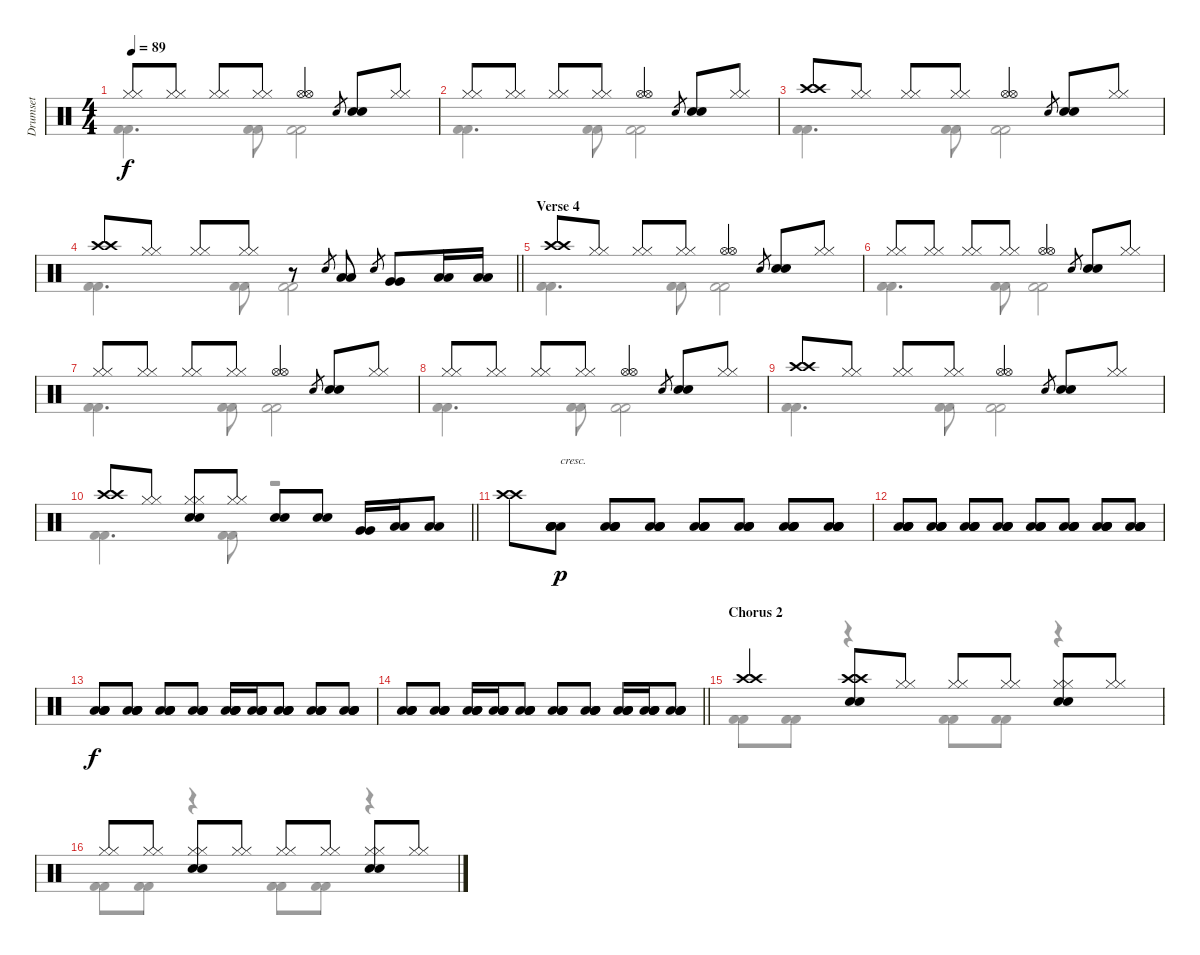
\track ("Drumset" "Drumset") {instrument percussion}
\staff {score}
\articulation defaults
\voice
\ts (4 4)
\tempo 89
\clef neutral
\ks c
("Hi-Hat (closed)" "Hi-Hat (closed)").8{dy f} ("Hi-Hat (closed)" "Hi-Hat (closed)").8 ("Hi-Hat (closed)" "Hi-Hat (closed)").8 ("Hi-Hat (closed)" "Hi-Hat (closed)").8 ("Hi-Hat (open)" "Hi-Hat (open)").4 "Snare (hit)".8{gr} ("Electric Snare (hit)" "Electric Snare (hit)").8 ("Hi-Hat (closed)" "Hi-Hat (closed)").8 |
("Hi-Hat (closed)" "Hi-Hat (closed)").8 ("Hi-Hat (closed)" "Hi-Hat (closed)").8 ("Hi-Hat (closed)" "Hi-Hat (closed)").8 ("Hi-Hat (closed)" "Hi-Hat (closed)").8 ("Hi-Hat (open)" "Hi-Hat (open)").4 "Snare (hit)".8{gr} ("Electric Snare (hit)" "Electric Snare (hit)").8 ("Hi-Hat (closed)" "Hi-Hat (closed)").8 |
("Crash high (hit)" "Crash high (hit)").8 ("Hi-Hat (closed)" "Hi-Hat (closed)").8 ("Hi-Hat (closed)" "Hi-Hat (closed)").8 ("Hi-Hat (closed)" "Hi-Hat (closed)").8 ("Hi-Hat (open)" "Hi-Hat (open)").4 "Snare (hit)".8{gr} ("Electric Snare (hit)" "Electric Snare (hit)").8 ("Hi-Hat (closed)" "Hi-Hat (closed)").8 |
\barLineRight lightlight
("Crash high (hit)" "Crash high (hit)").8 ("Hi-Hat (closed)" "Hi-Hat (closed)").8 ("Hi-Hat (closed)" "Hi-Hat (closed)").8 ("Hi-Hat (closed)" "Hi-Hat (closed)").8 r.8 "Snare (hit)".8{gr} ("Low Tom (hit)" "Low Tom (hit)").8 "Snare (hit)".8{gr} ("Very Low Tom (hit)" "Very Low Tom (hit)").8 ("Low Floor Tom (hit)" "Low Floor Tom (hit)").16 ("Low Floor Tom (hit)" "Low Floor Tom (hit)").16 |
\section ("" "Verse 4")
("Crash high (hit)" "Crash high (hit)").8 ("Hi-Hat (closed)" "Hi-Hat (closed)").8 ("Hi-Hat (closed)" "Hi-Hat (closed)").8 ("Hi-Hat (closed)" "Hi-Hat (closed)").8 ("Hi-Hat (open)" "Hi-Hat (open)").4 "Snare (hit)".8{gr} ("Electric Snare (hit)" "Electric Snare (hit)").8 ("Hi-Hat (closed)" "Hi-Hat (closed)").8 |
("Hi-Hat (closed)" "Hi-Hat (closed)").8 ("Hi-Hat (closed)" "Hi-Hat (closed)").8 ("Hi-Hat (closed)" "Hi-Hat (closed)").8 ("Hi-Hat (closed)" "Hi-Hat (closed)").8 ("Hi-Hat (open)" "Hi-Hat (open)").4 "Snare (hit)".8{gr} ("Electric Snare (hit)" "Electric Snare (hit)").8 ("Hi-Hat (closed)" "Hi-Hat (closed)").8 |
("Hi-Hat (closed)" "Hi-Hat (closed)").8 ("Hi-Hat (closed)" "Hi-Hat (closed)").8 ("Hi-Hat (closed)" "Hi-Hat (closed)").8 ("Hi-Hat (closed)" "Hi-Hat (closed)").8 ("Hi-Hat (open)" "Hi-Hat (open)").4 "Snare (hit)".8{gr} ("Electric Snare (hit)" "Electric Snare (hit)").8 ("Hi-Hat (closed)" "Hi-Hat (closed)").8 |
("Hi-Hat (closed)" "Hi-Hat (closed)").8 ("Hi-Hat (closed)" "Hi-Hat (closed)").8 ("Hi-Hat (closed)" "Hi-Hat (closed)").8 ("Hi-Hat (closed)" "Hi-Hat (closed)").8 ("Hi-Hat (open)" "Hi-Hat (open)").4 "Snare (hit)".8{gr} ("Electric Snare (hit)" "Electric Snare (hit)").8 ("Hi-Hat (closed)" "Hi-Hat (closed)").8 |
("Crash high (hit)" "Crash high (hit)").8 ("Hi-Hat (closed)" "Hi-Hat (closed)").8 ("Hi-Hat (closed)" "Hi-Hat (closed)").8 ("Hi-Hat (closed)" "Hi-Hat (closed)").8 ("Hi-Hat (open)" "Hi-Hat (open)").4 "Snare (hit)".8{gr} ("Electric Snare (hit)" "Electric Snare (hit)").8 ("Hi-Hat (closed)" "Hi-Hat (closed)").8 |
\barLineRight lightlight
("Crash high (hit)" "Crash high (hit)").8 ("Hi-Hat (closed)" "Hi-Hat (closed)").8 ("Electric Snare (hit)" "Electric Snare (hit)" "Hi-Hat (closed)" "Hi-Hat (closed)").8 ("Hi-Hat (closed)" "Hi-Hat (closed)").8 ("Electric Snare (hit)" "Electric Snare (hit)").8 ("Electric Snare (hit)" "Electric Snare (hit)").8 ("Very Low Tom (hit)" "Very Low Tom (hit)").16 ("Low Tom (hit)" "Low Tom (hit)").16 ("Low Floor Tom (hit)" "Low Floor Tom (hit)").8 |
("Crash high (hit)" "Crash high (hit)").8 ("Low Floor Tom (hit)" "Low Floor Tom (hit)" "Low Tom (hit)" "Low Tom (hit)").8{txt "cresc." dy p} ("Low Floor Tom (hit)" "Low Floor Tom (hit)" "Low Tom (hit)" "Low Tom (hit)").8 ("Low Floor Tom (hit)" "Low Floor Tom (hit)" "Low Tom (hit)" "Low Tom (hit)").8 ("Low Floor Tom (hit)" "Low Floor Tom (hit)" "Low Tom (hit)" "Low Tom (hit)").8 ("Low Floor Tom (hit)" "Low Floor Tom (hit)" "Low Tom (hit)" "Low Tom (hit)").8 ("Low Floor Tom (hit)" "Low Floor Tom (hit)" "Low Tom (hit)" "Low Tom (hit)").8 ("Low Floor Tom (hit)" "Low Floor Tom (hit)" "Low Tom (hit)" "Low Tom (hit)").8 |
("Low Floor Tom (hit)" "Low Floor Tom (hit)" "Low Tom (hit)" "Low Tom (hit)").8 ("Low Floor Tom (hit)" "Low Floor Tom (hit)" "Low Tom (hit)" "Low Tom (hit)").8 ("Low Floor Tom (hit)" "Low Floor Tom (hit)" "Low Tom (hit)" "Low Tom (hit)").8 ("Low Floor Tom (hit)" "Low Floor Tom (hit)" "Low Tom (hit)" "Low Tom (hit)").8 ("Low Floor Tom (hit)" "Low Floor Tom (hit)" "Low Tom (hit)" "Low Tom (hit)").8 ("Low Floor Tom (hit)" "Low Floor Tom (hit)" "Low Tom (hit)" "Low Tom (hit)").8 ("Low Floor Tom (hit)" "Low Floor Tom (hit)" "Low Tom (hit)" "Low Tom (hit)").8 ("Low Floor Tom (hit)" "Low Floor Tom (hit)" "Low Tom (hit)" "Low Tom (hit)").8 |
("Low Floor Tom (hit)" "Low Floor Tom (hit)" "Low Tom (hit)" "Low Tom (hit)").8{dy f} ("Low Floor Tom (hit)" "Low Floor Tom (hit)" "Low Tom (hit)" "Low Tom (hit)").8 ("Low Floor Tom (hit)" "Low Floor Tom (hit)" "Low Tom (hit)" "Low Tom (hit)").8 ("Low Floor Tom (hit)" "Low Floor Tom (hit)" "Low Tom (hit)" "Low Tom (hit)").8 ("Low Floor Tom (hit)" "Low Floor Tom (hit)" "Low Tom (hit)" "Low Tom (hit)").16 ("Low Floor Tom (hit)" "Low Floor Tom (hit)" "Low Tom (hit)" "Low Tom (hit)").16 ("Low Floor Tom (hit)" "Low Floor Tom (hit)" "Low Tom (hit)" "Low Tom (hit)").8 ("Low Floor Tom (hit)" "Low Floor Tom (hit)" "Low Tom (hit)" "Low Tom (hit)").8 ("Low Floor Tom (hit)" "Low Floor Tom (hit)" "Low Tom (hit)" "Low Tom (hit)").8 |
\barLineRight lightlight
("Low Floor Tom (hit)" "Low Floor Tom (hit)" "Low Tom (hit)" "Low Tom (hit)").8 ("Low Floor Tom (hit)" "Low Floor Tom (hit)" "Low Tom (hit)" "Low Tom (hit)").8 ("Low Floor Tom (hit)" "Low Floor Tom (hit)" "Low Tom (hit)" "Low Tom (hit)").16 ("Low Floor Tom (hit)" "Low Floor Tom (hit)" "Low Tom (hit)" "Low Tom (hit)").16 ("Low Floor Tom (hit)" "Low Floor Tom (hit)" "Low Tom (hit)" "Low Tom (hit)").8 ("Low Floor Tom (hit)" "Low Floor Tom (hit)" "Low Tom (hit)" "Low Tom (hit)").8 ("Low Floor Tom (hit)" "Low Floor Tom (hit)" "Low Tom (hit)" "Low Tom (hit)").8 ("Low Floor Tom (hit)" "Low Floor Tom (hit)" "Low Tom (hit)" "Low Tom (hit)").16 ("Low Floor Tom (hit)" "Low Floor Tom (hit)" "Low Tom (hit)" "Low Tom (hit)").16 ("Low Floor Tom (hit)" "Low Floor Tom (hit)" "Low Tom (hit)" "Low Tom (hit)").8 |
\section ("" "Chorus 2")
("Crash high (hit)" "Crash high (hit)").4 ("Electric Snare (hit)" "Electric Snare (hit)" "Crash high (hit)" "Crash high (hit)").8 ("Hi-Hat (closed)" "Hi-Hat (closed)").8 ("Hi-Hat (closed)" "Hi-Hat (closed)").8 ("Hi-Hat (closed)" "Hi-Hat (closed)").8 ("Electric Snare (hit)" "Electric Snare (hit)" "Hi-Hat (closed)" "Hi-Hat (closed)").8 ("Hi-Hat (closed)" "Hi-Hat (closed)").8 |
("Hi-Hat (closed)" "Hi-Hat (closed)").8 ("Hi-Hat (closed)" "Hi-Hat (closed)").8 ("Electric Snare (hit)" "Electric Snare (hit)" "Hi-Hat (closed)" "Hi-Hat (closed)").8 ("Hi-Hat (closed)" "Hi-Hat (closed)").8 ("Hi-Hat (closed)" "Hi-Hat (closed)").8 ("Hi-Hat (closed)" "Hi-Hat (closed)").8 ("Electric Snare (hit)" "Electric Snare (hit)" "Hi-Hat (closed)" "Hi-Hat (closed)").8 ("Hi-Hat (closed)" "Hi-Hat (closed)").8
\voice
\clef neutral
\ottava regular
\simile none
\ks c
("Kick (hit) 2" "Kick (hit) 2").4{d dy f} ("Kick (hit) 2" "Kick (hit) 2").8 ("Kick (hit) 2" "Kick (hit) 2").2 |
("Kick (hit) 2" "Kick (hit) 2").4{d} ("Kick (hit) 2" "Kick (hit) 2").8 ("Kick (hit) 2" "Kick (hit) 2").2 |
("Kick (hit) 2" "Kick (hit) 2").4{d} ("Kick (hit) 2" "Kick (hit) 2").8 ("Kick (hit) 2" "Kick (hit) 2").2 |
\barLineRight lightlight
("Kick (hit) 2" "Kick (hit) 2").4{d} ("Kick (hit) 2" "Kick (hit) 2").8 ("Kick (hit) 2" "Kick (hit) 2").2 |
("Kick (hit) 2" "Kick (hit) 2").4{d} ("Kick (hit) 2" "Kick (hit) 2").8 ("Kick (hit) 2" "Kick (hit) 2").2 |
("Kick (hit) 2" "Kick (hit) 2").4{d} ("Kick (hit) 2" "Kick (hit) 2").8 ("Kick (hit) 2" "Kick (hit) 2").2 |
("Kick (hit) 2" "Kick (hit) 2").4{d} ("Kick (hit) 2" "Kick (hit) 2").8 ("Kick (hit) 2" "Kick (hit) 2").2 |
("Kick (hit) 2" "Kick (hit) 2").4{d} ("Kick (hit) 2" "Kick (hit) 2").8 ("Kick (hit) 2" "Kick (hit) 2").2 |
("Kick (hit) 2" "Kick (hit) 2").4{d} ("Kick (hit) 2" "Kick (hit) 2").8 ("Kick (hit) 2" "Kick (hit) 2").2 |
\barLineRight lightlight
("Kick (hit) 2" "Kick (hit) 2").4{d} ("Kick (hit) 2" "Kick (hit) 2").8 r.2 |
|
|
|
\barLineRight lightlight
|
("Kick (hit) 2" "Kick (hit) 2").8 ("Kick (hit) 2" "Kick (hit) 2").8 r.4 ("Kick (hit) 2" "Kick (hit) 2").8 ("Kick (hit) 2" "Kick (hit) 2").8 r.4 |
("Kick (hit) 2" "Kick (hit) 2").8 ("Kick (hit) 2" "Kick (hit) 2").8 r.4 ("Kick (hit) 2" "Kick (hit) 2").8 ("Kick (hit) 2" "Kick (hit) 2").8 r.4
